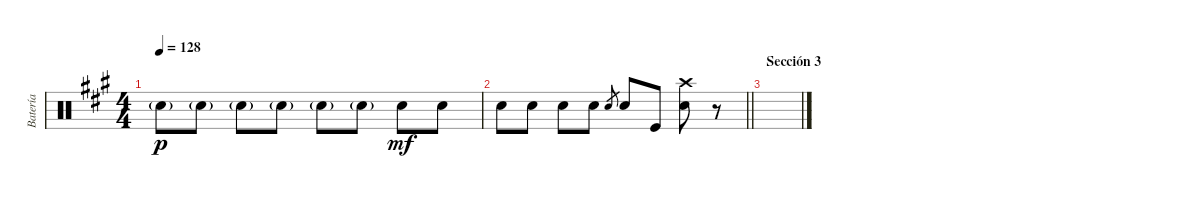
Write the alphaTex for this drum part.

\track ("Batería" "Batería") {instrument percussion}
\staff {score}
\articulation defaults
\ts (4 4)
\tempo 128
\clef neutral
\ks a "Electric Snare (hit)"{g}.8{dy p} "Electric Snare (hit)"{g}.8 "Electric Snare (hit)"{g}.8 "Electric Snare (hit)"{g}.8 "Electric Snare (hit)"{g}.8 "Electric Snare (hit)"{g}.8 "Electric Snare (hit)".8{dy mf} "Electric Snare (hit)".8
|
\barLineRight lightlight "Electric Snare (hit)".8 "Electric Snare (hit)".8 "Electric Snare (hit)".8 "Electric Snare (hit)".8 "Electric Snare (hit)".8{gr} "Electric Snare (hit)".8 "Kick (hit)".8
("Crash high (hit)" "Electric Snare (hit)").8 r.8 |
\section ("" "Sección 3")
